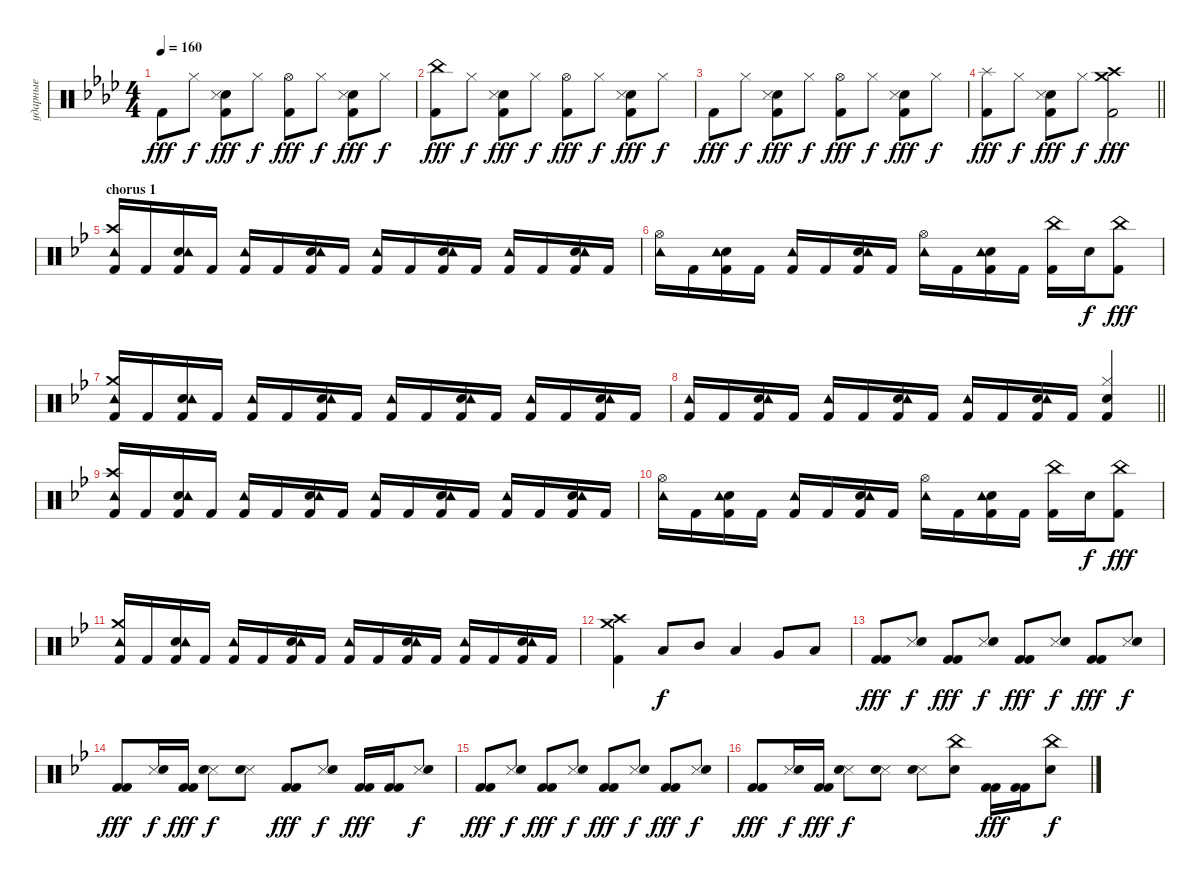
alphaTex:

\track ("ударные" "ударные") {instrument percussion}
\staff {score}
\articulation defaults
\ts (4 4)
\tempo 160
\clef neutral
\ks fminor "Kick (hit) 2".8{dy fff} "Hi-Hat (closed)".8{dy f}
("Kick (hit) 2" "Electric Snare (hit)" "Snare (side stick) 3").8{dy fff} "Hi-Hat (closed)".8{dy f} ("Kick (hit) 2" "Hi-Hat (open)").8{dy fff} "Hi-Hat (closed)".8{dy f} ("Kick (hit) 2" "Electric Snare (hit)" "Snare (side stick) 3").8{dy fff} "Hi-Hat (closed)".8{dy f} |
("Kick (hit) 2" "China (hit)").8{dy fff} "Hi-Hat (closed)".8{dy f} ("Kick (hit) 2" "Electric Snare (hit)" "Snare (side stick) 3").8{dy fff} "Hi-Hat (closed)".8{dy f} ("Kick (hit) 2" "Hi-Hat (open)").8{dy fff} "Hi-Hat (closed)".8{dy f} ("Kick (hit) 2" "Electric Snare (hit)" "Snare (side stick) 3").8{dy fff} "Hi-Hat (closed)".8{dy f} |
"Kick (hit) 2".8{dy fff} "Hi-Hat (closed)".8{dy f} ("Kick (hit) 2" "Electric Snare (hit)" "Snare (side stick) 3").8{dy fff} "Hi-Hat (closed)".8{dy f} ("Kick (hit) 2" "Hi-Hat (open)").8{dy fff} "Hi-Hat (closed)".8{dy f} ("Kick (hit) 2" "Electric Snare (hit)" "Snare (side stick) 3").8{dy fff} "Hi-Hat (closed)".8{dy f} |
\barLineRight lightlight
("Kick (hit) 2" "Splash (hit)").8{dy fff} "Hi-Hat (closed)".8{dy f} ("Kick (hit) 2" "Electric Snare (hit)" "Snare (side stick) 3").8{dy fff} "Hi-Hat (closed)".8{dy f} ("Crash medium (hit)" "Crash high (hit)" "Kick (hit) 2").2{dy fff} |
\section ("" "chorus 1")
\ks gminor
("Crash high (hit)" "Tambourine (hit)" "Kick (hit) 2").16 "Kick (hit) 2".16 ("Electric Snare (hit)" "Tambourine (hit)" "Kick (hit) 2").16 "Kick (hit) 2".16 ("Tambourine (hit)" "Kick (hit) 2").16 "Kick (hit) 2".16 ("Electric Snare (hit)" "Tambourine (hit)" "Kick (hit) 2").16 "Kick (hit) 2".16 ("Tambourine (hit)" "Kick (hit) 2").16 "Kick (hit) 2".16 ("Electric Snare (hit)" "Tambourine (hit)" "Kick (hit) 2").16 "Kick (hit) 2".16 ("Tambourine (hit)" "Kick (hit) 2").16 "Kick (hit) 2".16 ("Electric Snare (hit)" "Tambourine (hit)" "Kick (hit) 2").16 "Kick (hit) 2".16 |
("Hi-Hat (open)" "Tambourine (hit)").16 "Kick (hit) 2".16 ("Electric Snare (hit)" "Tambourine (hit)" "Kick (hit) 2").16 "Kick (hit) 2".16 ("Tambourine (hit)" "Kick (hit) 2").16 "Kick (hit) 2".16 ("Electric Snare (hit)" "Tambourine (hit)" "Kick (hit) 2").16 "Kick (hit) 2".16 ("Hi-Hat (open)" "Tambourine (hit)").16 "Kick (hit) 2".16 ("Electric Snare (hit)" "Tambourine (hit)" "Kick (hit) 2").16 "Kick (hit) 2".16 ("China (hit)" "Kick (hit) 2").16 "Electric Snare (hit)".16{dy f} ("China (hit)" "Kick (hit) 2").8{dy fff} |
("Crash medium (hit)" "Tambourine (hit)" "Kick (hit) 2").16 "Kick (hit) 2".16 ("Electric Snare (hit)" "Tambourine (hit)" "Kick (hit) 2").16 "Kick (hit) 2".16 ("Tambourine (hit)" "Kick (hit) 2").16 "Kick (hit) 2".16 ("Electric Snare (hit)" "Tambourine (hit)" "Kick (hit) 2").16 "Kick (hit) 2".16 ("Tambourine (hit)" "Kick (hit) 2").16 "Kick (hit) 2".16 ("Electric Snare (hit)" "Tambourine (hit)" "Kick (hit) 2").16 "Kick (hit) 2".16 ("Tambourine (hit)" "Kick (hit) 2").16 "Kick (hit) 2".16 ("Electric Snare (hit)" "Tambourine (hit)" "Kick (hit) 2").16 "Kick (hit) 2".16 |
\barLineRight lightlight
("Tambourine (hit)" "Kick (hit) 2").16 "Kick (hit) 2".16 ("Electric Snare (hit)" "Tambourine (hit)" "Kick (hit) 2").16 "Kick (hit) 2".16 ("Tambourine (hit)" "Kick (hit) 2").16 "Kick (hit) 2".16 ("Electric Snare (hit)" "Tambourine (hit)" "Kick (hit) 2").16 "Kick (hit) 2".16 ("Tambourine (hit)" "Kick (hit) 2").16 "Kick (hit) 2".16 ("Electric Snare (hit)" "Tambourine (hit)" "Kick (hit) 2").16 "Kick (hit) 2".16 ("Electric Snare (hit)" "Hi-Hat (closed)" "Kick (hit) 2").4 |
("Crash high (hit)" "Tambourine (hit)" "Kick (hit) 2").16 "Kick (hit) 2".16 ("Electric Snare (hit)" "Tambourine (hit)" "Kick (hit) 2").16 "Kick (hit) 2".16 ("Tambourine (hit)" "Kick (hit) 2").16 "Kick (hit) 2".16 ("Electric Snare (hit)" "Tambourine (hit)" "Kick (hit) 2").16 "Kick (hit) 2".16 ("Tambourine (hit)" "Kick (hit) 2").16 "Kick (hit) 2".16 ("Electric Snare (hit)" "Tambourine (hit)" "Kick (hit) 2").16 "Kick (hit) 2".16 ("Tambourine (hit)" "Kick (hit) 2").16 "Kick (hit) 2".16 ("Electric Snare (hit)" "Tambourine (hit)" "Kick (hit) 2").16 "Kick (hit) 2".16 |
("Hi-Hat (open)" "Tambourine (hit)").16 "Kick (hit) 2".16 ("Electric Snare (hit)" "Tambourine (hit)" "Kick (hit) 2").16 "Kick (hit) 2".16 ("Tambourine (hit)" "Kick (hit) 2").16 "Kick (hit) 2".16 ("Electric Snare (hit)" "Tambourine (hit)" "Kick (hit) 2").16 "Kick (hit) 2".16 ("Hi-Hat (open)" "Tambourine (hit)").16 "Kick (hit) 2".16 ("Electric Snare (hit)" "Tambourine (hit)" "Kick (hit) 2").16 "Kick (hit) 2".16 ("China (hit)" "Kick (hit) 2").16 "Electric Snare (hit)".16{dy f} ("China (hit)" "Kick (hit) 2").8{dy fff} |
("Crash medium (hit)" "Tambourine (hit)" "Kick (hit) 2").16 "Kick (hit) 2".16 ("Electric Snare (hit)" "Tambourine (hit)" "Kick (hit) 2").16 "Kick (hit) 2".16 ("Tambourine (hit)" "Kick (hit) 2").16 "Kick (hit) 2".16 ("Electric Snare (hit)" "Tambourine (hit)" "Kick (hit) 2").16 "Kick (hit) 2".16 ("Tambourine (hit)" "Kick (hit) 2").16 "Kick (hit) 2".16 ("Electric Snare (hit)" "Tambourine (hit)" "Kick (hit) 2").16 "Kick (hit) 2".16 ("Tambourine (hit)" "Kick (hit) 2").16 "Kick (hit) 2".16 ("Electric Snare (hit)" "Tambourine (hit)" "Kick (hit) 2").16 "Kick (hit) 2".16 |
("Crash high (hit)" "Crash medium (hit)" "Kick (hit) 2").4 "Low Tom (hit)".8{dy f} "Mid Tom (hit)".8 "Low Tom (hit)".4 "Very Low Tom (hit)".8 "Low Floor Tom (hit)".8 |
("Kick (hit) 2" "Kick (hit) 2").8{dy fff} ("Snare (side stick) 3" "Electric Snare (hit)").8{dy f} ("Kick (hit) 2" "Kick (hit) 2").8{dy fff} ("Snare (side stick) 3" "Electric Snare (hit)").8{dy f} ("Kick (hit) 2" "Kick (hit) 2").8{dy fff} ("Snare (side stick) 3" "Electric Snare (hit)").8{dy f} ("Kick (hit) 2" "Kick (hit) 2").8{dy fff} ("Snare (side stick) 3" "Electric Snare (hit)").8{dy f} |
("Kick (hit) 2" "Kick (hit) 2").8{dy fff} ("Snare (side stick) 3" "Electric Snare (hit)").16{dy f} ("Kick (hit) 2" "Kick (hit) 2").16{dy fff} ("Snare (side stick) 3" "Electric Snare (hit)").8{dy f} ("Snare (side stick) 3" "Electric Snare (hit)").8 ("Kick (hit) 2" "Kick (hit) 2").8{dy fff} ("Snare (side stick) 3" "Electric Snare (hit)").8{dy f} ("Kick (hit) 2" "Kick (hit) 2").16{dy fff} ("Kick (hit) 2" "Kick (hit) 2").16 ("Snare (side stick) 3" "Electric Snare (hit)").8{dy f} |
("Kick (hit) 2" "Kick (hit) 2").8{dy fff} ("Snare (side stick) 3" "Electric Snare (hit)").8{dy f} ("Kick (hit) 2" "Kick (hit) 2").8{dy fff} ("Snare (side stick) 3" "Electric Snare (hit)").8{dy f} ("Kick (hit) 2" "Kick (hit) 2").8{dy fff} ("Snare (side stick) 3" "Electric Snare (hit)").8{dy f} ("Kick (hit) 2" "Kick (hit) 2").8{dy fff} ("Snare (side stick) 3" "Electric Snare (hit)").8{dy f} |
("Kick (hit) 2" "Kick (hit) 2").8{dy fff} ("Snare (side stick) 3" "Electric Snare (hit)").16{dy f} ("Kick (hit) 2" "Kick (hit) 2").16{dy fff} ("Snare (side stick) 3" "Electric Snare (hit)").8{dy f} ("Snare (side stick) 3" "Electric Snare (hit)").8 ("Snare (side stick) 3" "Electric Snare (hit)").8 ("China (hit)" "Electric Snare (hit)").8 ("Kick (hit) 2" "Kick (hit) 2").16{dy fff} ("Kick (hit) 2" "Kick (hit) 2").16 ("China (hit)" "Electric Snare (hit)").8{dy f}
